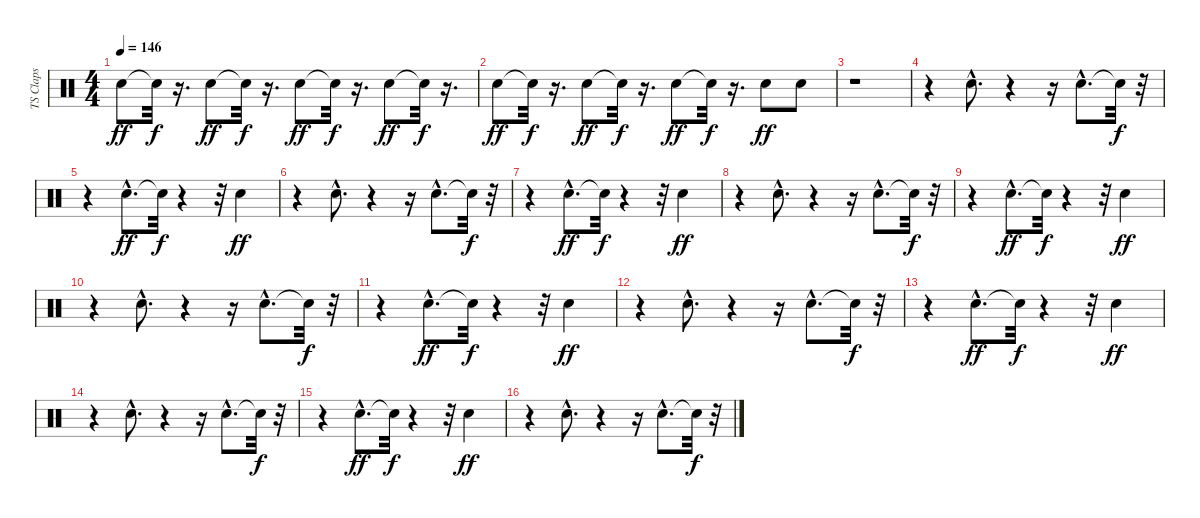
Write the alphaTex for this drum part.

\track ("TS Claps" "TS Claps") {instrument percussion}
\staff {score}
\articulation defaults
\ts (4 4)
\tempo 146
\clef neutral
\ks c "Hand Clap (hit)".8{dy ff} "Snare (hit)"{t}.32{dy f}
r.16{d} "Hand Clap (hit)".8{dy ff} "Snare (hit)"{t}.32{dy f} r.16{d} "Hand Clap (hit)".8{dy ff} "Snare (hit)"{t}.32{dy f} r.16{d} "Hand Clap (hit)".8{dy ff} "Snare (hit)"{t}.32{dy f} r.16{d} |
"Hand Clap (hit)".8{dy ff} "Snare (hit)"{t}.32{dy f} r.16{d} "Hand Clap (hit)".8{dy ff} "Snare (hit)"{t}.32{dy f} r.16{d} "Hand Clap (hit)".8{dy ff} "Snare (hit)"{t}.32{dy f} r.16{d} "Hand Clap (hit)".8{dy ff} "Hand Clap (hit)".8 |
r.1 |
r.4 "Hand Clap (hit)"{hac}.8{d} r.4 r.16 "Hand Clap (hit)"{hac}.8{d} "Snare (hit)"{t}.32{dy f} r.32 |
r.4 "Hand Clap (hit)"{hac}.8{d dy ff} "Snare (hit)"{t}.32{dy f} r.4 r.32 "Hand Clap (hit)".4{dy ff} |
r.4 "Hand Clap (hit)"{hac}.8{d} r.4 r.16 "Hand Clap (hit)"{hac}.8{d} "Snare (hit)"{t}.32{dy f} r.32 |
r.4 "Hand Clap (hit)"{hac}.8{d dy ff} "Snare (hit)"{t}.32{dy f} r.4 r.32 "Hand Clap (hit)".4{dy ff} |
r.4 "Hand Clap (hit)"{hac}.8{d} r.4 r.16 "Hand Clap (hit)"{hac}.8{d} "Snare (hit)"{t}.32{dy f} r.32 |
r.4 "Hand Clap (hit)"{hac}.8{d dy ff} "Snare (hit)"{t}.32{dy f} r.4 r.32 "Hand Clap (hit)".4{dy ff} |
r.4 "Hand Clap (hit)"{hac}.8{d} r.4 r.16 "Hand Clap (hit)"{hac}.8{d} "Snare (hit)"{t}.32{dy f} r.32 |
r.4 "Hand Clap (hit)"{hac}.8{d dy ff} "Snare (hit)"{t}.32{dy f} r.4 r.32 "Hand Clap (hit)".4{dy ff} |
r.4 "Hand Clap (hit)"{hac}.8{d} r.4 r.16 "Hand Clap (hit)"{hac}.8{d} "Snare (hit)"{t}.32{dy f} r.32 |
r.4 "Hand Clap (hit)"{hac}.8{d dy ff} "Snare (hit)"{t}.32{dy f} r.4 r.32 "Hand Clap (hit)".4{dy ff} |
r.4 "Hand Clap (hit)"{hac}.8{d} r.4 r.16 "Hand Clap (hit)"{hac}.8{d} "Snare (hit)"{t}.32{dy f} r.32 |
r.4 "Hand Clap (hit)"{hac}.8{d dy ff} "Snare (hit)"{t}.32{dy f} r.4 r.32 "Hand Clap (hit)".4{dy ff} |
r.4 "Hand Clap (hit)"{hac}.8{d} r.4 r.16 "Hand Clap (hit)"{hac}.8{d} "Snare (hit)"{t}.32{dy f} r.32
